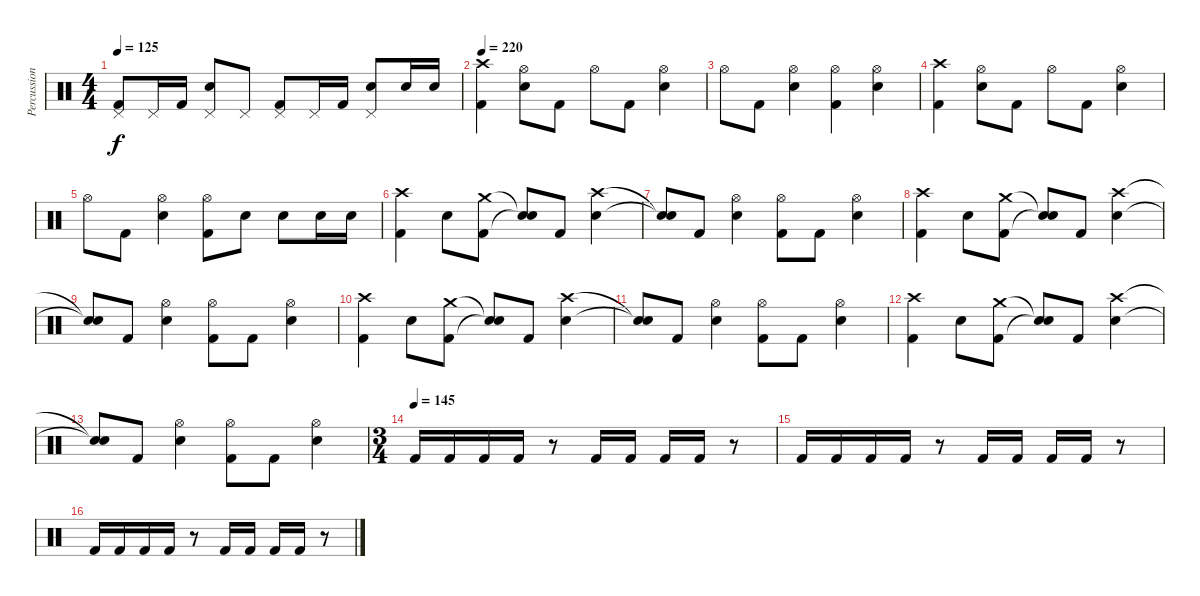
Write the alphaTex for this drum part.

\track ("Percussion" "Percussion") {instrument percussion}
\staff {score}
\articulation defaults
\ts (4 4)
\tempo 125
\clef neutral
\ks c
("Pedal Hi-Hat (hit)" "Kick (hit) 2").8{dy f} "Pedal Hi-Hat (hit)".16 "Kick (hit) 2".16 ("Pedal Hi-Hat (hit)" "Electric Snare (hit)").8 "Pedal Hi-Hat (hit)".8 ("Pedal Hi-Hat (hit)" "Kick (hit) 2").8 "Pedal Hi-Hat (hit)".16 "Kick (hit) 2".16 ("Pedal Hi-Hat (hit)" "Electric Snare (hit)").8 "Electric Snare (hit)".16 "Electric Snare (hit)".16 |
\tempo 220
("Crash high (hit)" "Kick (hit) 2").4 ("Hi-Hat (open)" "Electric Snare (hit)").8 "Kick (hit) 2".8 "Hi-Hat (open)".8 "Kick (hit) 2".8 ("Hi-Hat (open)" "Electric Snare (hit)").4 |
"Hi-Hat (open)".8 "Kick (hit) 2".8 ("Hi-Hat (open)" "Electric Snare (hit)").4 ("Hi-Hat (open)" "Kick (hit) 2").4 ("Hi-Hat (open)" "Electric Snare (hit)").4 |
("Crash high (hit)" "Kick (hit) 2").4 ("Hi-Hat (open)" "Electric Snare (hit)").8 "Kick (hit) 2".8 "Hi-Hat (open)".8 "Kick (hit) 2".8 ("Hi-Hat (open)" "Electric Snare (hit)").4 |
"Hi-Hat (open)".8 "Kick (hit) 2".8 ("Hi-Hat (open)" "Electric Snare (hit)").4 ("Hi-Hat (open)" "Kick (hit) 2").8 "Electric Snare (hit)".8 "Electric Snare (hit)".8 "Electric Snare (hit)".16 "Electric Snare (hit)".16 |
("Crash high (hit)" "Kick (hit) 2").4 "Electric Snare (hit)".8 ("Crash medium (hit)" "Kick (hit) 2").8 ("Snare (hit)"{t} "Snare (hit)"{t}).8 "Kick (hit) 2".8 ("Crash high (hit)" "Electric Snare (hit)").4 |
("Snare (hit)"{t} "Snare (hit)"{t}).8 "Kick (hit) 2".8 ("Hi-Hat (open)" "Electric Snare (hit)").4 ("Hi-Hat (open)" "Kick (hit) 2").8 "Kick (hit) 2".8 ("Hi-Hat (open)" "Electric Snare (hit)").4 |
("Crash high (hit)" "Kick (hit) 2").4 "Electric Snare (hit)".8 ("Crash medium (hit)" "Kick (hit) 2").8 ("Snare (hit)"{t} "Snare (hit)"{t}).8 "Kick (hit) 2".8 ("Crash high (hit)" "Electric Snare (hit)").4 |
("Snare (hit)"{t} "Snare (hit)"{t}).8 "Kick (hit) 2".8 ("Hi-Hat (open)" "Electric Snare (hit)").4 ("Hi-Hat (open)" "Kick (hit) 2").8 "Kick (hit) 2".8 ("Hi-Hat (open)" "Electric Snare (hit)").4 |
("Crash high (hit)" "Kick (hit) 2").4 "Electric Snare (hit)".8 ("Crash medium (hit)" "Kick (hit) 2").8 ("Snare (hit)"{t} "Snare (hit)"{t}).8 "Kick (hit) 2".8 ("Crash high (hit)" "Electric Snare (hit)").4 |
("Snare (hit)"{t} "Snare (hit)"{t}).8 "Kick (hit) 2".8 ("Hi-Hat (open)" "Electric Snare (hit)").4 ("Hi-Hat (open)" "Kick (hit) 2").8 "Kick (hit) 2".8 ("Hi-Hat (open)" "Electric Snare (hit)").4 |
("Crash high (hit)" "Kick (hit) 2").4 "Electric Snare (hit)".8 ("Crash medium (hit)" "Kick (hit) 2").8 ("Snare (hit)"{t} "Snare (hit)"{t}).8 "Kick (hit) 2".8 ("Crash high (hit)" "Electric Snare (hit)").4 |
("Snare (hit)"{t} "Snare (hit)"{t}).8 "Kick (hit) 2".8 ("Hi-Hat (open)" "Electric Snare (hit)").4 ("Hi-Hat (open)" "Kick (hit) 2").8 "Kick (hit) 2".8 ("Hi-Hat (open)" "Electric Snare (hit)").4 |
\ts (3 4)
\tempo (145)
"Kick (hit) 2".16 "Kick (hit) 2".16 "Kick (hit) 2".16 "Kick (hit) 2".16 r.8 "Kick (hit) 2".16 "Kick (hit) 2".16 "Kick (hit) 2".16 "Kick (hit) 2".16 r.8 |
"Kick (hit) 2".16 "Kick (hit) 2".16 "Kick (hit) 2".16 "Kick (hit) 2".16 r.8 "Kick (hit) 2".16 "Kick (hit) 2".16 "Kick (hit) 2".16 "Kick (hit) 2".16 r.8 |
"Kick (hit) 2".16 "Kick (hit) 2".16 "Kick (hit) 2".16 "Kick (hit) 2".16 r.8 "Kick (hit) 2".16 "Kick (hit) 2".16 "Kick (hit) 2".16 "Kick (hit) 2".16 r.8
